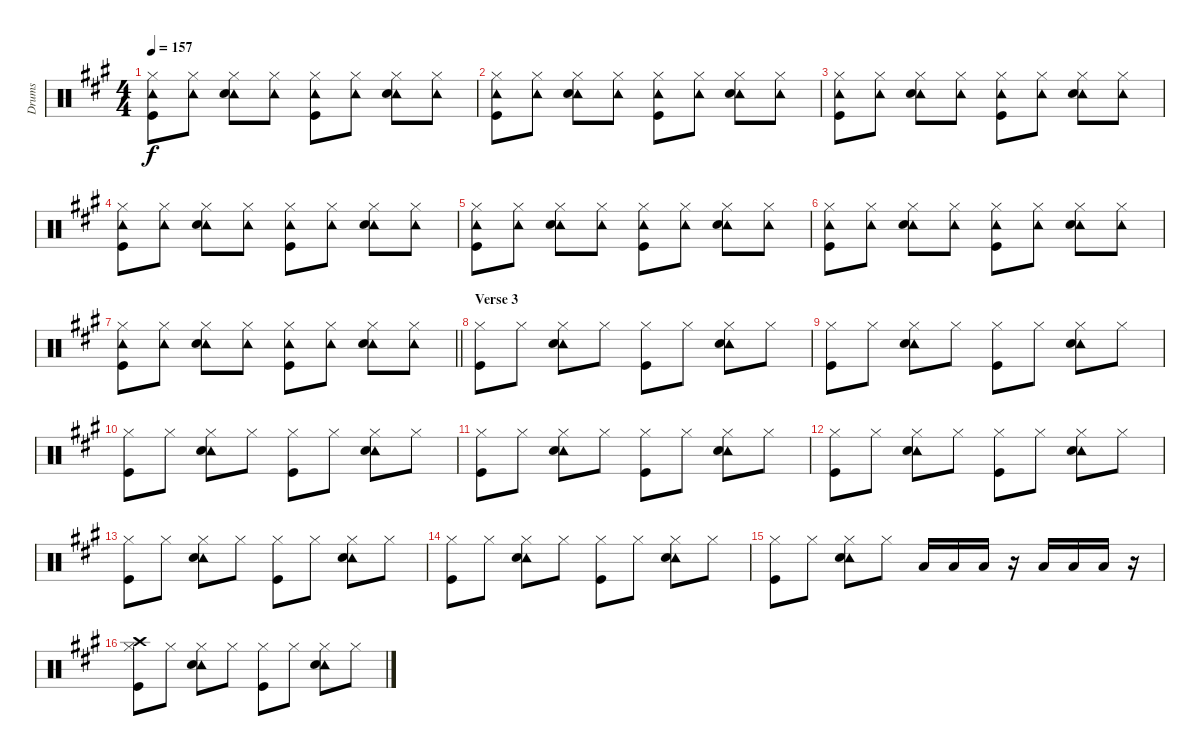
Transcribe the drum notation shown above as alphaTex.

\track ("Drums" "Drums") {instrument percussion}
\staff {score}
\articulation defaults
\ts (4 4)
\tempo 157
\clef neutral
\ks a
("Hi-Hat (closed)" "Tambourine (hit)" "Kick (hit)").8{dy f} ("Hi-Hat (closed)" "Tambourine (hit)").8 ("Hi-Hat (closed)" "Tambourine (hit)" "Electric Snare (hit)").8 ("Hi-Hat (closed)" "Tambourine (hit)").8 ("Hi-Hat (closed)" "Tambourine (hit)" "Kick (hit)").8 ("Hi-Hat (closed)" "Tambourine (hit)").8 ("Hi-Hat (closed)" "Tambourine (hit)" "Electric Snare (hit)").8 ("Hi-Hat (closed)" "Tambourine (hit)").8 |
("Hi-Hat (closed)" "Tambourine (hit)" "Kick (hit)").8 ("Hi-Hat (closed)" "Tambourine (hit)").8 ("Hi-Hat (closed)" "Tambourine (hit)" "Electric Snare (hit)").8 ("Hi-Hat (closed)" "Tambourine (hit)").8 ("Hi-Hat (closed)" "Tambourine (hit)" "Kick (hit)").8 ("Hi-Hat (closed)" "Tambourine (hit)").8 ("Hi-Hat (closed)" "Tambourine (hit)" "Electric Snare (hit)").8 ("Hi-Hat (closed)" "Tambourine (hit)").8 |
("Hi-Hat (closed)" "Tambourine (hit)" "Kick (hit)").8 ("Hi-Hat (closed)" "Tambourine (hit)").8 ("Hi-Hat (closed)" "Tambourine (hit)" "Electric Snare (hit)").8 ("Hi-Hat (closed)" "Tambourine (hit)").8 ("Hi-Hat (closed)" "Tambourine (hit)" "Kick (hit)").8 ("Hi-Hat (closed)" "Tambourine (hit)").8 ("Hi-Hat (closed)" "Tambourine (hit)" "Electric Snare (hit)").8 ("Hi-Hat (closed)" "Tambourine (hit)").8 |
("Hi-Hat (closed)" "Tambourine (hit)" "Kick (hit)").8 ("Hi-Hat (closed)" "Tambourine (hit)").8 ("Hi-Hat (closed)" "Tambourine (hit)" "Electric Snare (hit)").8 ("Hi-Hat (closed)" "Tambourine (hit)").8 ("Hi-Hat (closed)" "Tambourine (hit)" "Kick (hit)").8 ("Hi-Hat (closed)" "Tambourine (hit)").8 ("Hi-Hat (closed)" "Tambourine (hit)" "Electric Snare (hit)").8 ("Hi-Hat (closed)" "Tambourine (hit)").8 |
("Hi-Hat (closed)" "Tambourine (hit)" "Kick (hit)").8 ("Hi-Hat (closed)" "Tambourine (hit)").8 ("Hi-Hat (closed)" "Tambourine (hit)" "Electric Snare (hit)").8 ("Hi-Hat (closed)" "Tambourine (hit)").8 ("Hi-Hat (closed)" "Tambourine (hit)" "Kick (hit)").8 ("Hi-Hat (closed)" "Tambourine (hit)").8 ("Hi-Hat (closed)" "Tambourine (hit)" "Electric Snare (hit)").8 ("Hi-Hat (closed)" "Tambourine (hit)").8 |
("Hi-Hat (closed)" "Tambourine (hit)" "Kick (hit)").8 ("Hi-Hat (closed)" "Tambourine (hit)").8 ("Hi-Hat (closed)" "Tambourine (hit)" "Electric Snare (hit)").8 ("Hi-Hat (closed)" "Tambourine (hit)").8 ("Hi-Hat (closed)" "Tambourine (hit)" "Kick (hit)").8 ("Hi-Hat (closed)" "Tambourine (hit)").8 ("Hi-Hat (closed)" "Tambourine (hit)" "Electric Snare (hit)").8 ("Hi-Hat (closed)" "Tambourine (hit)").8 |
\barLineRight lightlight
("Hi-Hat (closed)" "Tambourine (hit)" "Kick (hit)").8 ("Hi-Hat (closed)" "Tambourine (hit)").8 ("Hi-Hat (closed)" "Tambourine (hit)" "Electric Snare (hit)").8 ("Hi-Hat (closed)" "Tambourine (hit)").8 ("Hi-Hat (closed)" "Tambourine (hit)" "Kick (hit)").8 ("Hi-Hat (closed)" "Tambourine (hit)").8 ("Hi-Hat (closed)" "Tambourine (hit)" "Electric Snare (hit)").8 ("Hi-Hat (closed)" "Tambourine (hit)").8 |
\section ("" "Verse 3")
("Hi-Hat (closed)" "Kick (hit)").8 "Hi-Hat (closed)".8 ("Hi-Hat (closed)" "Tambourine (hit)" "Electric Snare (hit)").8 "Hi-Hat (closed)".8 ("Hi-Hat (closed)" "Kick (hit)").8 "Hi-Hat (closed)".8 ("Hi-Hat (closed)" "Tambourine (hit)" "Electric Snare (hit)").8 "Hi-Hat (closed)".8 |
("Hi-Hat (closed)" "Kick (hit)").8 "Hi-Hat (closed)".8 ("Hi-Hat (closed)" "Tambourine (hit)" "Electric Snare (hit)").8 "Hi-Hat (closed)".8 ("Hi-Hat (closed)" "Kick (hit)").8 "Hi-Hat (closed)".8 ("Hi-Hat (closed)" "Tambourine (hit)" "Electric Snare (hit)").8 "Hi-Hat (closed)".8 |
("Hi-Hat (closed)" "Kick (hit)").8 "Hi-Hat (closed)".8 ("Hi-Hat (closed)" "Tambourine (hit)" "Electric Snare (hit)").8 "Hi-Hat (closed)".8 ("Hi-Hat (closed)" "Kick (hit)").8 "Hi-Hat (closed)".8 ("Hi-Hat (closed)" "Tambourine (hit)" "Electric Snare (hit)").8 "Hi-Hat (closed)".8 |
("Hi-Hat (closed)" "Kick (hit)").8 "Hi-Hat (closed)".8 ("Hi-Hat (closed)" "Tambourine (hit)" "Electric Snare (hit)").8 "Hi-Hat (closed)".8 ("Hi-Hat (closed)" "Kick (hit)").8 "Hi-Hat (closed)".8 ("Hi-Hat (closed)" "Tambourine (hit)" "Electric Snare (hit)").8 "Hi-Hat (closed)".8 |
("Hi-Hat (closed)" "Kick (hit)").8 "Hi-Hat (closed)".8 ("Hi-Hat (closed)" "Tambourine (hit)" "Electric Snare (hit)").8 "Hi-Hat (closed)".8 ("Hi-Hat (closed)" "Kick (hit)").8 "Hi-Hat (closed)".8 ("Hi-Hat (closed)" "Tambourine (hit)" "Electric Snare (hit)").8 "Hi-Hat (closed)".8 |
("Hi-Hat (closed)" "Kick (hit)").8 "Hi-Hat (closed)".8 ("Hi-Hat (closed)" "Tambourine (hit)" "Electric Snare (hit)").8 "Hi-Hat (closed)".8 ("Hi-Hat (closed)" "Kick (hit)").8 "Hi-Hat (closed)".8 ("Hi-Hat (closed)" "Tambourine (hit)" "Electric Snare (hit)").8 "Hi-Hat (closed)".8 |
("Hi-Hat (closed)" "Kick (hit)").8 "Hi-Hat (closed)".8 ("Hi-Hat (closed)" "Tambourine (hit)" "Electric Snare (hit)").8 "Hi-Hat (closed)".8 ("Hi-Hat (closed)" "Kick (hit)").8 "Hi-Hat (closed)".8 ("Hi-Hat (closed)" "Tambourine (hit)" "Electric Snare (hit)").8 "Hi-Hat (closed)".8 |
("Hi-Hat (closed)" "Kick (hit)").8 "Hi-Hat (closed)".8 ("Hi-Hat (closed)" "Tambourine (hit)" "Electric Snare (hit)").8 "Hi-Hat (closed)".8 "Low Tom (hit)".16 "Low Tom (hit)".16 "Low Tom (hit)".16 r.16 "Low Floor Tom (hit)".16 "Low Floor Tom (hit)".16 "Low Floor Tom (hit)".16 r.16 |
("Hi-Hat (closed)" "Crash high (hit)" "Kick (hit)").8 "Hi-Hat (closed)".8 ("Hi-Hat (closed)" "Tambourine (hit)" "Electric Snare (hit)").8 "Hi-Hat (closed)".8 ("Hi-Hat (closed)" "Kick (hit)").8 "Hi-Hat (closed)".8 ("Hi-Hat (closed)" "Tambourine (hit)" "Electric Snare (hit)").8 "Hi-Hat (closed)".8
